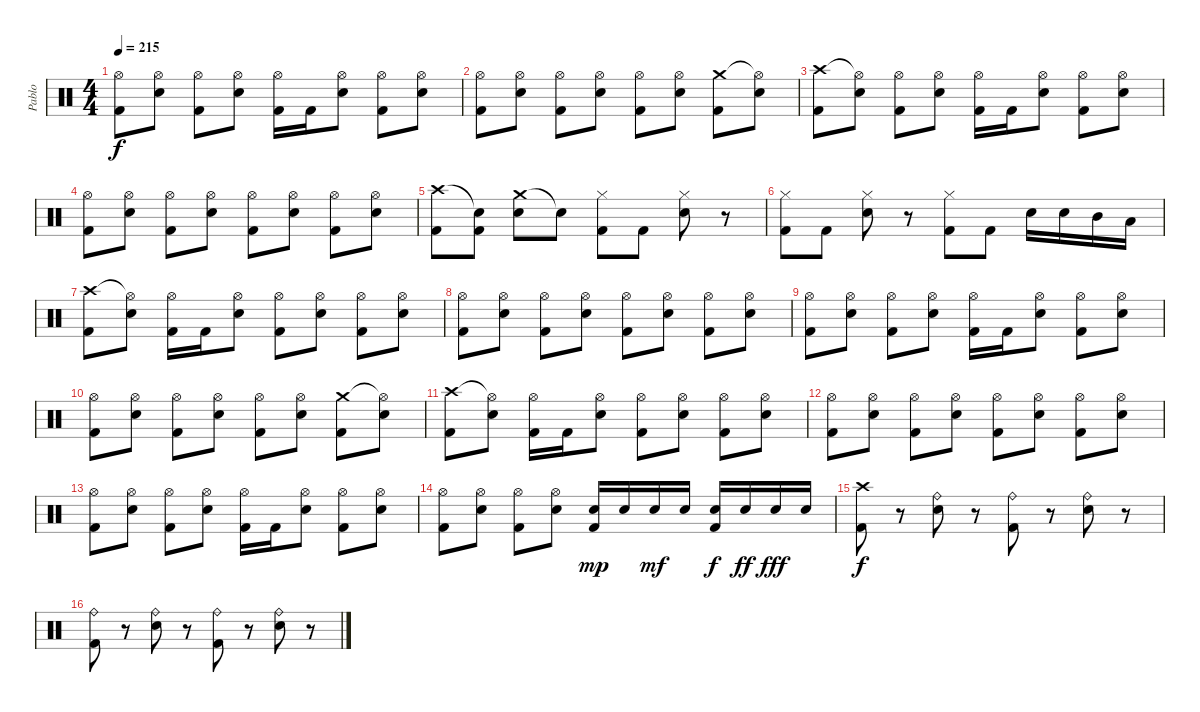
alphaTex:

\track ("Pablo" "Pablo") {instrument percussion}
\staff {score}
\articulation defaults
\ts (4 4)
\tempo 215
\clef neutral
\ks c
("Hi-Hat (open)" "Kick (hit) 2").8{dy f} ("Hi-Hat (open)" "Electric Snare (hit)").8 ("Hi-Hat (open)" "Kick (hit) 2").8 ("Hi-Hat (open)" "Electric Snare (hit)").8 ("Hi-Hat (open)" "Kick (hit) 2").16 "Kick (hit) 2".16 ("Hi-Hat (open)" "Electric Snare (hit)").8 ("Hi-Hat (open)" "Kick (hit) 2").8 ("Hi-Hat (open)" "Electric Snare (hit)").8 |
("Hi-Hat (open)" "Kick (hit) 2").8 ("Hi-Hat (open)" "Electric Snare (hit)").8 ("Hi-Hat (open)" "Kick (hit) 2").8 ("Hi-Hat (open)" "Electric Snare (hit)").8 ("Hi-Hat (open)" "Kick (hit) 2").8 ("Hi-Hat (open)" "Electric Snare (hit)").8 ("Crash medium (hit)" "Kick (hit) 2").8 ("Hi-Hat (open)"{t} "Electric Snare (hit)").8 |
("Crash high (hit)" "Kick (hit) 2").8 ("Hi-Hat (open)"{t} "Electric Snare (hit)").8 ("Hi-Hat (open)" "Kick (hit) 2").8 ("Hi-Hat (open)" "Electric Snare (hit)").8 ("Hi-Hat (open)" "Kick (hit) 2").16 "Kick (hit) 2".16 ("Hi-Hat (open)" "Electric Snare (hit)").8 ("Hi-Hat (open)" "Kick (hit) 2").8 ("Hi-Hat (open)" "Electric Snare (hit)").8 |
("Hi-Hat (open)" "Kick (hit) 2").8 ("Hi-Hat (open)" "Electric Snare (hit)").8 ("Hi-Hat (open)" "Kick (hit) 2").8 ("Hi-Hat (open)" "Electric Snare (hit)").8 ("Hi-Hat (open)" "Kick (hit) 2").8 ("Hi-Hat (open)" "Electric Snare (hit)").8 ("Hi-Hat (open)" "Kick (hit) 2").8 ("Hi-Hat (open)" "Electric Snare (hit)").8 |
("Crash high (hit)" "Kick (hit) 2").8 ("Snare (hit)"{t} "Kick (hit) 2").8 ("Crash medium (hit)" "Electric Snare (hit)").8 "Snare (hit)"{t}.8 ("Hi-Hat (closed)" "Kick (hit) 2").8 "Kick (hit) 2".8 ("Hi-Hat (closed)" "Electric Snare (hit)").8 r.8 |
("Hi-Hat (closed)" "Kick (hit) 2").8 "Kick (hit) 2".8 ("Hi-Hat (closed)" "Electric Snare (hit)").8 r.8 ("Hi-Hat (closed)" "Kick (hit) 2").8 "Kick (hit) 2".8 "Electric Snare (hit)".16 "Electric Snare (hit)".16 "Mid Tom (hit)".16 "Low Tom (hit)".16 |
("Crash high (hit)" "Kick (hit) 2").8 ("Hi-Hat (open)"{t} "Electric Snare (hit)").8 ("Hi-Hat (open)" "Kick (hit) 2").16 "Kick (hit) 2".16 ("Hi-Hat (open)" "Electric Snare (hit)").8 ("Hi-Hat (open)" "Kick (hit) 2").8 ("Hi-Hat (open)" "Electric Snare (hit)").8 ("Hi-Hat (open)" "Kick (hit) 2").8 ("Hi-Hat (open)" "Electric Snare (hit)").8 |
("Hi-Hat (open)" "Kick (hit) 2").8 ("Hi-Hat (open)" "Electric Snare (hit)").8 ("Hi-Hat (open)" "Kick (hit) 2").8 ("Hi-Hat (open)" "Electric Snare (hit)").8 ("Hi-Hat (open)" "Kick (hit) 2").8 ("Hi-Hat (open)" "Electric Snare (hit)").8 ("Hi-Hat (open)" "Kick (hit) 2").8 ("Hi-Hat (open)" "Electric Snare (hit)").8 |
("Hi-Hat (open)" "Kick (hit) 2").8 ("Hi-Hat (open)" "Electric Snare (hit)").8 ("Hi-Hat (open)" "Kick (hit) 2").8 ("Hi-Hat (open)" "Electric Snare (hit)").8 ("Hi-Hat (open)" "Kick (hit) 2").16 "Kick (hit) 2".16 ("Hi-Hat (open)" "Electric Snare (hit)").8 ("Hi-Hat (open)" "Kick (hit) 2").8 ("Hi-Hat (open)" "Electric Snare (hit)").8 |
("Hi-Hat (open)" "Kick (hit) 2").8 ("Hi-Hat (open)" "Electric Snare (hit)").8 ("Hi-Hat (open)" "Kick (hit) 2").8 ("Hi-Hat (open)" "Electric Snare (hit)").8 ("Hi-Hat (open)" "Kick (hit) 2").8 ("Hi-Hat (open)" "Electric Snare (hit)").8 ("Crash medium (hit)" "Kick (hit) 2").8 ("Hi-Hat (open)"{t} "Electric Snare (hit)").8 |
("Crash high (hit)" "Kick (hit) 2").8 ("Hi-Hat (open)"{t} "Electric Snare (hit)").8 ("Hi-Hat (open)" "Kick (hit) 2").16 "Kick (hit) 2".16 ("Hi-Hat (open)" "Electric Snare (hit)").8 ("Hi-Hat (open)" "Kick (hit) 2").8 ("Hi-Hat (open)" "Electric Snare (hit)").8 ("Hi-Hat (open)" "Kick (hit) 2").8 ("Hi-Hat (open)" "Electric Snare (hit)").8 |
("Hi-Hat (open)" "Kick (hit) 2").8 ("Hi-Hat (open)" "Electric Snare (hit)").8 ("Hi-Hat (open)" "Kick (hit) 2").8 ("Hi-Hat (open)" "Electric Snare (hit)").8 ("Hi-Hat (open)" "Kick (hit) 2").8 ("Hi-Hat (open)" "Electric Snare (hit)").8 ("Hi-Hat (open)" "Kick (hit) 2").8 ("Hi-Hat (open)" "Electric Snare (hit)").8 |
("Hi-Hat (open)" "Kick (hit) 2").8 ("Hi-Hat (open)" "Electric Snare (hit)").8 ("Hi-Hat (open)" "Kick (hit) 2").8 ("Hi-Hat (open)" "Electric Snare (hit)").8 ("Hi-Hat (open)" "Kick (hit) 2").16 "Kick (hit) 2".16 ("Hi-Hat (open)" "Electric Snare (hit)").8 ("Hi-Hat (open)" "Kick (hit) 2").8 ("Hi-Hat (open)" "Electric Snare (hit)").8 |
("Hi-Hat (open)" "Kick (hit) 2").8 ("Hi-Hat (open)" "Electric Snare (hit)").8 ("Hi-Hat (open)" "Kick (hit) 2").8 ("Hi-Hat (open)" "Electric Snare (hit)").8 ("Kick (hit) 2" "Electric Snare (hit)").16{dy mp} "Electric Snare (hit)".16 "Electric Snare (hit)".16{dy mf} "Electric Snare (hit)".16 ("Kick (hit) 2" "Electric Snare (hit)").16{dy f} "Electric Snare (hit)".16{dy ff} "Electric Snare (hit)".16{dy fff} "Electric Snare (hit)".16 |
("Crash high (hit)" "Kick (hit) 2").8{dy f} r.8 ("Ride (bell)" "Electric Snare (hit)").8 r.8 ("Ride (bell)" "Kick (hit) 2").8 r.8 ("Ride (bell)" "Electric Snare (hit)").8 r.8 |
("Ride (bell)" "Kick (hit) 2").8 r.8 ("Ride (bell)" "Electric Snare (hit)").8 r.8 ("Ride (bell)" "Kick (hit) 2").8 r.8 ("Ride (bell)" "Electric Snare (hit)").8 r.8
